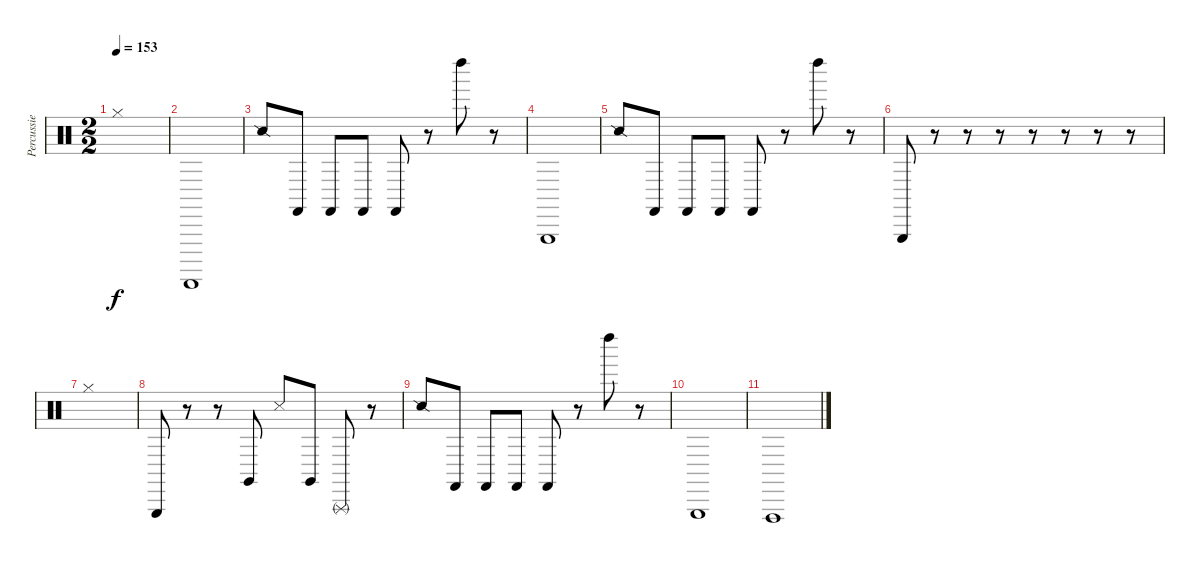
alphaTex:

\track ("Percussie" "Percussie") {instrument percussion}
\staff {score}
\articulation defaults
\ts (2 2)
\tempo 153
\clef neutral
\ks c "Hi-Hat (closed)".1{dy f}
|
"Guiro (scrap-return)".1 |
"Snare (side stick) 2".8 "Castanets (hit)".8 "Castanets (hit)".8 "Castanets (hit)".8 "Castanets (hit)".8 r.8 "Left Maraca (hit)".8 r.8 |
"Triangle (hit)".1 |
"Snare (side stick) 2".8 "Castanets (hit)".8 "Castanets (hit)".8 "Castanets (hit)".8 "Castanets (hit)".8 r.8 "Left Maraca (hit)".8 r.8 |
"Triangle (hit)".8 r.8 r.8 r.8 r.8 r.8 r.8 r.8 |
"Hi-Hat (closed)".1 |
"Triangle (hit)".8 r.8 r.8 "Claves (hit)".8 "Metronome (hit)".8 "Claves (hit)".8 "Triangle (rnute)".8 r.8 |
"Snare (side stick) 2".8 "Castanets (hit)".8 "Castanets (hit)".8 "Castanets (hit)".8 "Castanets (hit)".8 r.8 "Left Maraca (hit)".8 r.8 |
"Triangle (hit)".1 |
"Vibraslap (hit)".1
